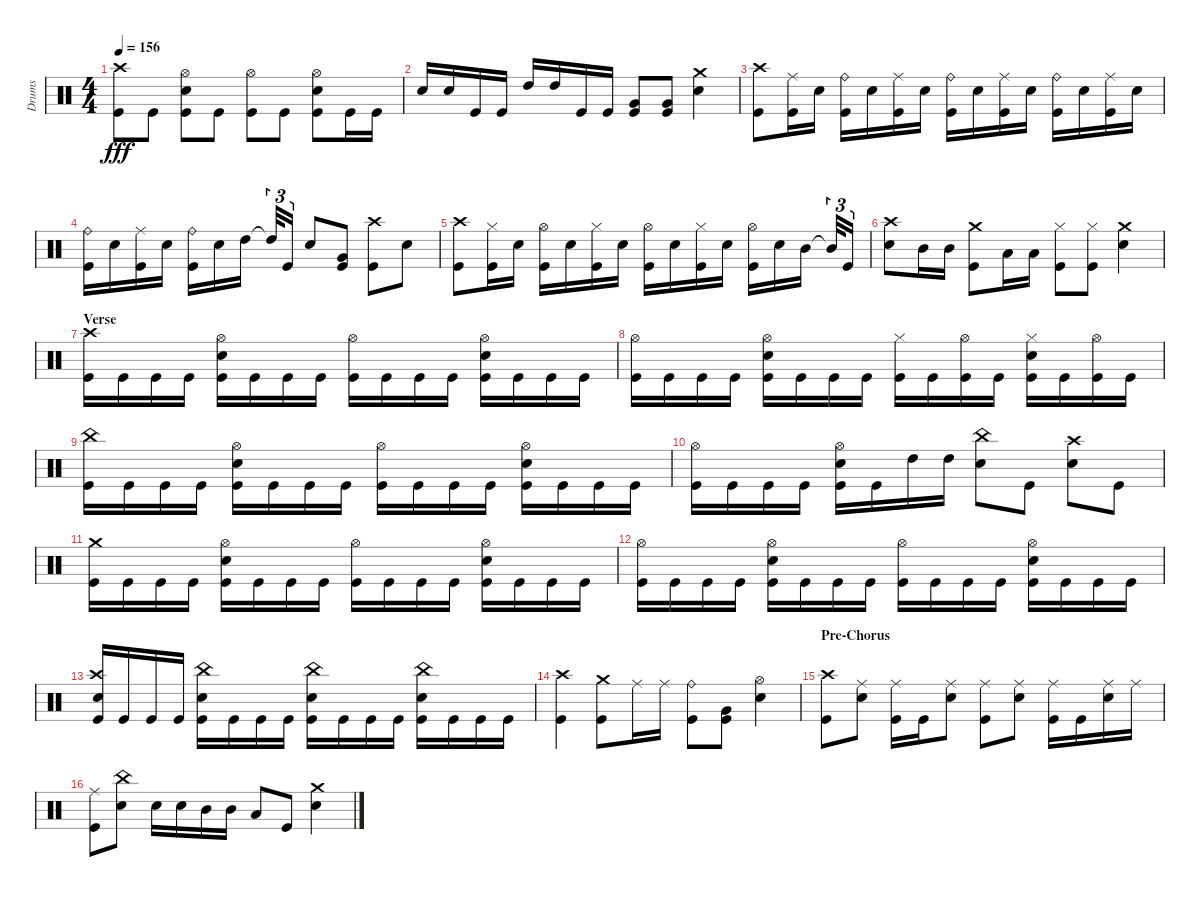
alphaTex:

\track ("Drums" "Drums") {instrument percussion}
\staff {score}
\articulation defaults
\ts (4 4)
\tempo 156
\clef neutral
\ks aminor
("Kick (hit)" "Crash high (hit)").8{dy fff} "Kick (hit)".8 ("Snare (hit) 2" "Hi-Hat (open)" "Kick (hit)").8 "Kick (hit)".8 ("Kick (hit)" "Hi-Hat (open)").8 "Kick (hit)".8 ("Kick (hit)" "Snare (hit) 2" "Hi-Hat (open)").8 "Kick (hit)".16 "Kick (hit)".16 |
"Snare (hit) 2".16 "Snare (hit) 2".16 "Kick (hit)".16 "Kick (hit)".16 "High Tom (hit)".16 "High Tom (hit)".16 "Kick (hit)".16 "Kick (hit)".16 ("Very Low Tom (hit)" "Kick (hit)").8 ("Very Low Tom (hit)" "Kick (hit)").8 ("Snare (hit) 2" "Crash medium (hit)").4 |
("Kick (hit)" "Crash high (hit)").8 ("Kick (hit)" "Ride (middle)").16 "Snare (hit) 2".16 ("Kick (hit)" "Ride (bell)").16 "Snare (hit) 2".16 ("Kick (hit)" "Ride (middle)").16 "Snare (hit) 2".16 ("Ride (bell)" "Kick (hit)").16 "Snare (hit) 2".16 ("Kick (hit)" "Ride (middle)").16 "Snare (hit) 2".16 ("Kick (hit)" "Ride (bell)").16 "Snare (hit) 2".16 ("Ride (middle)" "Kick (hit)").16 "Snare (hit) 2".16 |
("Kick (hit)" "Ride (bell)").16 "Snare (hit) 2".16 ("Kick (hit)" "Ride (middle)").16 "Snare (hit) 2".16 ("Kick (hit)" "Ride (bell)").16 "Snare (hit) 2".16 "High Tom (hit)".16 "High Tom (hit)"{t}.32{tu (3 2)} "Kick (hit)".16{tu (3 2)} "Snare (hit) 2".8 ("Very Low Tom (hit)" "Kick (hit)").8 ("Crash high (hit)" "Kick (hit)").8 "Snare (hit) 2".8 |
("Kick (hit)" "Crash high (hit)").8 ("Hi-Hat (closed)" "Kick (hit)").16 "Snare (hit) 2".16 ("Kick (hit)" "Hi-Hat (open)").16 "Snare (hit) 2".16 ("Kick (hit)" "Hi-Hat (closed)").16 "Snare (hit) 2".16 ("Kick (hit)" "Hi-Hat (open)").16 "Snare (hit) 2".16 ("Kick (hit)" "Hi-Hat (closed)").16 "Snare (hit) 2".16 ("Hi-Hat (open)" "Kick (hit)").16 "Snare (hit) 2".16 "Mid Tom (hit)".16 "Mid Tom (hit)"{t}.32{tu (3 2)} "Kick (hit)".16{tu (3 2)} |
("Crash high (hit)" "Snare (hit) 2").8 "Mid Tom (hit)".16 "Mid Tom (hit)".16 ("Crash medium (hit)" "Kick (hit)").8 "Low Tom (hit)".16 "Low Tom (hit)".16 ("Hi-Hat (closed)" "Kick (hit)").8 ("Hi-Hat (closed)" "Kick (hit)").8 ("Crash medium (hit)" "Snare (hit) 2").4 |
\section ("" "Verse")
("Kick (hit)" "Crash high (hit)").16 "Kick (hit)".16 "Kick (hit)".16 "Kick (hit)".16 ("Kick (hit)" "Snare (hit) 2" "Hi-Hat (open)").16 "Kick (hit)".16 "Kick (hit)".16 "Kick (hit)".16 ("Hi-Hat (open)" "Kick (hit)").16 "Kick (hit)".16 "Kick (hit)".16 "Kick (hit)".16 ("Hi-Hat (open)" "Snare (hit) 2" "Kick (hit)").16 "Kick (hit)".16 "Kick (hit)".16 "Kick (hit)".16 |
("Kick (hit)" "Hi-Hat (open)").16 "Kick (hit)".16 "Kick (hit)".16 "Kick (hit)".16 ("Hi-Hat (open)" "Snare (hit) 2" "Kick (hit)").16 "Kick (hit)".16 "Kick (hit)".16 "Kick (hit)".16 ("Kick (hit)" "Hi-Hat (closed)").16 "Kick (hit)".16 ("Kick (hit)" "Hi-Hat (open)").16 "Kick (hit)".16 ("Snare (hit) 2" "Hi-Hat (closed)" "Kick (hit)").16 "Kick (hit)".16 ("Kick (hit)" "Hi-Hat (open)").16 "Kick (hit)".16 |
("China (hit)" "Kick (hit)").16 "Kick (hit)".16 "Kick (hit)".16 "Kick (hit)".16 ("Hi-Hat (open)" "Kick (hit)" "Snare (hit) 2").16 "Kick (hit)".16 "Kick (hit)".16 "Kick (hit)".16 ("Kick (hit)" "Hi-Hat (open)").16 "Kick (hit)".16 "Kick (hit)".16 "Kick (hit)".16 ("Kick (hit)" "Hi-Hat (open)" "Snare (hit) 2").16 "Kick (hit)".16 "Kick (hit)".16 "Kick (hit)".16 |
("Hi-Hat (open)" "Kick (hit)").16 "Kick (hit)".16 "Kick (hit)".16 "Kick (hit)".16 ("Snare (hit) 2" "Hi-Hat (open)" "Kick (hit)").16 "Kick (hit)".16 "High Tom (hit)".16 "High Tom (hit)".16 ("Snare (hit) 2" "China (hit)").8 "Kick (hit)".8 ("Snare (hit) 2" "Crash high (hit)").8 "Kick (hit)".8 |
("Kick (hit)" "Crash medium (hit)").16 "Kick (hit)".16 "Kick (hit)".16 "Kick (hit)".16 ("Hi-Hat (open)" "Snare (hit) 2" "Kick (hit)").16 "Kick (hit)".16 "Kick (hit)".16 "Kick (hit)".16 ("Kick (hit)" "Hi-Hat (open)").16 "Kick (hit)".16 "Kick (hit)".16 "Kick (hit)".16 ("Snare (hit) 2" "Hi-Hat (open)" "Kick (hit)").16 "Kick (hit)".16 "Kick (hit)".16 "Kick (hit)".16 |
("Kick (hit)" "Hi-Hat (open)").16 "Kick (hit)".16 "Kick (hit)".16 "Kick (hit)".16 ("Hi-Hat (open)" "Snare (hit) 2" "Kick (hit)").16 "Kick (hit)".16 "Kick (hit)".16 "Kick (hit)".16 ("Hi-Hat (open)" "Kick (hit)").16 "Kick (hit)".16 "Kick (hit)".16 "Kick (hit)".16 ("Snare (hit) 2" "Hi-Hat (open)" "Kick (hit)").16 "Kick (hit)".16 "Kick (hit)".16 "Kick (hit)".16 |
("Snare (hit) 2" "Kick (hit)" "Crash high (hit)").16 "Kick (hit)".16 "Kick (hit)".16 "Kick (hit)".16 ("Snare (hit) 2" "China (hit)" "Kick (hit)").16 "Kick (hit)".16 "Kick (hit)".16 "Kick (hit)".16 ("Snare (hit) 2" "China (hit)" "Kick (hit)").16 "Kick (hit)".16 "Kick (hit)".16 "Kick (hit)".16 ("Snare (hit) 2" "Kick (hit)" "China (hit)").16 "Kick (hit)".16 "Kick (hit)".16 "Kick (hit)".16 |
("Crash high (hit)" "Kick (hit)").4 ("Kick (hit)" "Crash medium (hit)").8 "Ride (middle)".16 "Ride (middle)".16 ("Ride (bell)" "Kick (hit)").8 ("Kick (hit)" "Very Low Tom (hit)").8 ("Snare (hit) 2" "Hi-Hat (open)").4 |
\section ("" "Pre-Chorus")
("Crash high (hit)" "Kick (hit)").8 ("Ride (middle)" "Snare (hit) 2").8 ("Ride (middle)" "Kick (hit)").16 "Kick (hit)".16 ("Ride (middle)" "Snare (hit) 2").8 ("Kick (hit)" "Ride (middle)").8 ("Snare (hit) 2" "Ride (middle)").8 ("Kick (hit)" "Ride (middle)").16 "Kick (hit)".16 ("Ride (middle)" "Snare (hit) 2").16 "Ride (middle)".16 |
("Kick (hit)" "Ride (middle)").8 ("China (hit)" "Snare (hit) 2").8 "Snare (hit) 2".16 "Snare (hit) 2".16 "Mid Tom (hit)".16 "Mid Tom (hit)".16 "Low Tom (hit)".8 "Kick (hit)".8 ("Crash medium (hit)" "Snare (hit) 2").4
